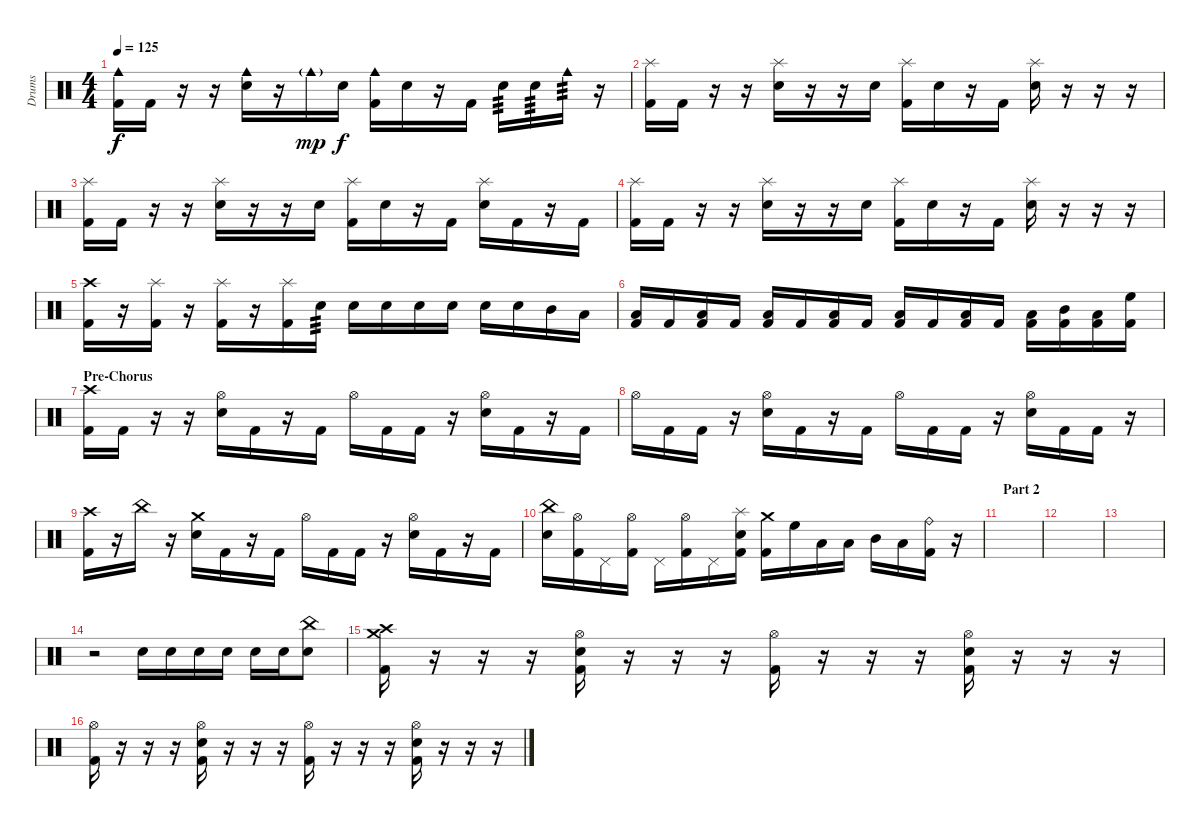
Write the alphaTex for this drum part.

\track ("Drums" "Drums") {instrument percussion}
\staff {score}
\articulation defaults
\ts (4 4)
\tempo 125
\clef neutral
\ks c
("Cowbell medium (hit)" "Kick (hit) 2").16{dy f} "Kick (hit) 2".16 r.16 r.16 ("Cowbell medium (hit)" "Electric Snare (hit)").16 r.16 "Cowbell medium (hit)"{g}.16{dy mp} "Electric Snare (hit)".16{dy f} ("Cowbell medium (hit)" "Kick (hit) 2").16 "Electric Snare (hit)".16 r.16 "Kick (hit) 2".16 "Electric Snare (hit)".16{tp 3} "Electric Snare (hit)".16{tp 3} "Cowbell medium (hit)".16{tp 3} r.16 |
("Splash (hit)" "Kick (hit) 2").16 "Kick (hit) 2".16 r.16 r.16 ("Splash (hit)" "Electric Snare (hit)").16 r.16 r.16 "Electric Snare (hit)".16 ("Splash (hit)" "Kick (hit) 2").16 "Electric Snare (hit)".16 r.16 "Kick (hit) 2".16 ("Splash (hit)" "Electric Snare (hit)").16 r.16 r.16 r.16 |
("Splash (hit)" "Kick (hit) 2").16 "Kick (hit) 2".16 r.16 r.16 ("Splash (hit)" "Electric Snare (hit)").16 r.16 r.16 "Electric Snare (hit)".16 ("Splash (hit)" "Kick (hit) 2").16 "Electric Snare (hit)".16 r.16 "Kick (hit) 2".16 ("Splash (hit)" "Electric Snare (hit)").16 "Kick (hit) 2".16 r.16 "Kick (hit) 2".16 |
("Splash (hit)" "Kick (hit) 2").16 "Kick (hit) 2".16 r.16 r.16 ("Splash (hit)" "Electric Snare (hit)").16 r.16 r.16 "Electric Snare (hit)".16 ("Splash (hit)" "Kick (hit) 2").16 "Electric Snare (hit)".16 r.16 "Kick (hit) 2".16 ("Splash (hit)" "Electric Snare (hit)").16 r.16 r.16 r.16 |
("Crash high (hit)" "Kick (hit) 2").16 r.16 ("Splash (hit)" "Kick (hit) 2").16 r.16 ("Splash (hit)" "Kick (hit) 2").16 r.16 ("Splash (hit)" "Kick (hit) 2").16 "Electric Snare (hit)".16{tp 3} "Electric Snare (hit)".16 "Electric Snare (hit)".16 "Electric Snare (hit)".16 "Electric Snare (hit)".16 "Electric Snare (hit)".16 "Electric Snare (hit)".16 "Mid Tom (hit)".16 "Low Tom (hit)".16 |
("Low Tom (hit)" "Kick (hit) 2").16 "Kick (hit) 2".16 ("Low Tom (hit)" "Kick (hit) 2").16 "Kick (hit) 2".16 ("Low Tom (hit)" "Kick (hit) 2").16 "Kick (hit) 2".16 ("Low Tom (hit)" "Kick (hit) 2").16 "Kick (hit) 2".16 ("Low Tom (hit)" "Kick (hit) 2").16 "Kick (hit) 2".16 ("Low Tom (hit)" "Kick (hit) 2").16 "Kick (hit) 2".16 ("Low Tom (hit)" "Kick (hit) 2").16 ("Mid Tom (hit)" "Kick (hit) 2").16 ("Low Tom (hit)" "Kick (hit) 2").16 ("High Floor Tom (hit)" "Kick (hit) 2").16 |
\section ("" "Pre-Chorus")
("Crash high (hit)" "Kick (hit) 2").16 "Kick (hit) 2".16 r.16 r.16 ("Hi-Hat (open)" "Electric Snare (hit)").16 "Kick (hit) 2".16 r.16 "Kick (hit) 2".16 "Hi-Hat (open)".16 "Kick (hit) 2".16 "Kick (hit) 2".16 r.16 ("Hi-Hat (open)" "Electric Snare (hit)").16 "Kick (hit) 2".16 r.16 "Kick (hit) 2".16 |
"Hi-Hat (open)".16 "Kick (hit) 2".16 "Kick (hit) 2".16 r.16 ("Hi-Hat (open)" "Electric Snare (hit)").16 "Kick (hit) 2".16 r.16 "Kick (hit) 2".16 "Hi-Hat (open)".16 "Kick (hit) 2".16 "Kick (hit) 2".16 r.16 ("Hi-Hat (open)" "Electric Snare (hit)").16 "Kick (hit) 2".16 "Kick (hit) 2".16 r.16 |
("Crash high (hit)" "Kick (hit) 2").16 r.16 "China (hit)".16 r.16 ("Crash medium (hit)" "Electric Snare (hit)").16 "Kick (hit) 2".16 r.16 "Kick (hit) 2".16 "Hi-Hat (open)".16 "Kick (hit) 2".16 "Kick (hit) 2".16 r.16 ("Hi-Hat (open)" "Electric Snare (hit)").16 "Kick (hit) 2".16 r.16 "Kick (hit) 2".16 |
("China (hit)" "Electric Snare (hit)").16 ("Hi-Hat (open)" "Kick (hit) 2").16 "Pedal Hi-Hat (hit)".16 ("Hi-Hat (open)" "Kick (hit) 2").16 "Pedal Hi-Hat (hit)".16 ("Hi-Hat (open)" "Kick (hit) 2").16 "Pedal Hi-Hat (hit)".16 ("Splash (hit)" "Electric Snare (hit)" "Kick (hit) 2").16 ("Crash medium (hit)" "Kick (hit) 2").16 "High Floor Tom (hit)".16 "Low Tom (hit)".16 "Low Tom (hit)".16 "Mid Tom (hit)".16 "Low Floor Tom (hit)".16 ("Ride (bell)" "Kick (hit) 2").16 r.16 |
\section ("" "Part 2")
|
|
|
r.2 "Electric Snare (hit)".16 "Electric Snare (hit)".16 "Electric Snare (hit)".16 "Electric Snare (hit)".16 "Electric Snare (hit)".16 "Electric Snare (hit)".16 ("China (hit)" "Electric Snare (hit)").8 |
("Crash high (hit)" "Crash medium (hit)" "Kick (hit) 2").16 r.16 r.16 r.16 ("Hi-Hat (open)" "Electric Snare (hit)" "Kick (hit) 2").16 r.16 r.16 r.16 ("Hi-Hat (open)" "Kick (hit) 2").16 r.16 r.16 r.16 ("Hi-Hat (open)" "Electric Snare (hit)" "Kick (hit) 2").16 r.16 r.16 r.16 |
("Hi-Hat (open)" "Kick (hit) 2").16 r.16 r.16 r.16 ("Hi-Hat (open)" "Electric Snare (hit)" "Kick (hit) 2").16 r.16 r.16 r.16 ("Hi-Hat (open)" "Kick (hit) 2").16 r.16 r.16 r.16 ("Hi-Hat (open)" "Electric Snare (hit)" "Kick (hit) 2").16 r.16 r.16 r.16
